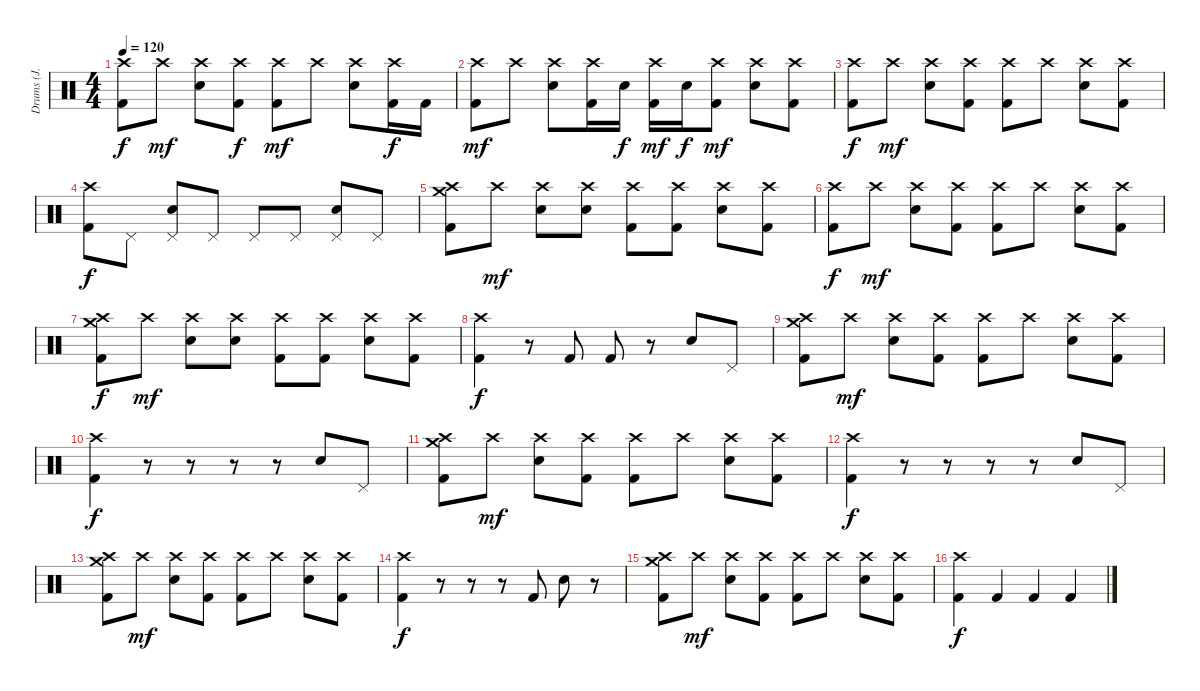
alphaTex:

\track ("Drums (J. Cramer)" "Drums (J. ") {instrument percussion}
\staff {score}
\articulation defaults
\ts (4 4)
\tempo 120
\clef neutral
\ks c
("Crash high (hit)" "Kick (hit) 2").8{dy f} "Crash high (hit)".8{dy mf} ("Crash high (hit)" "Electric Snare (hit)").8 ("Crash high (hit)" "Kick (hit) 2").8{dy f} ("Crash high (hit)" "Kick (hit) 2").8{dy mf} "Crash high (hit)".8 ("Crash high (hit)" "Electric Snare (hit)").8 ("Crash high (hit)" "Kick (hit) 2").16{dy f} "Kick (hit) 2".16 |
("Crash high (hit)" "Kick (hit) 2").8{dy mf} "Crash high (hit)".8 ("Crash high (hit)" "Electric Snare (hit)").8 ("Crash high (hit)" "Kick (hit) 2").16 "Electric Snare (hit)".16{dy f} ("Crash high (hit)" "Kick (hit) 2").16{dy mf} "Electric Snare (hit)".16{dy f} ("Crash high (hit)" "Kick (hit) 2").8{dy mf} ("Crash high (hit)" "Electric Snare (hit)").8 ("Crash high (hit)" "Kick (hit) 2").8 |
("Crash high (hit)" "Kick (hit) 2").8{dy f} "Crash high (hit)".8{dy mf} ("Crash high (hit)" "Electric Snare (hit)").8 ("Crash high (hit)" "Kick (hit) 2").8 ("Crash high (hit)" "Kick (hit) 2").8 "Crash high (hit)".8 ("Crash high (hit)" "Electric Snare (hit)").8 ("Crash high (hit)" "Kick (hit) 2").8 |
("Crash high (hit)" "Kick (hit) 2").8{dy f} "Pedal Hi-Hat (hit)".8 ("Pedal Hi-Hat (hit)" "Electric Snare (hit)").8 "Pedal Hi-Hat (hit)".8 "Pedal Hi-Hat (hit)".8 "Pedal Hi-Hat (hit)".8 ("Pedal Hi-Hat (hit)" "Electric Snare (hit)").8 "Pedal Hi-Hat (hit)".8 |
("Crash high (hit)" "Crash medium (hit)" "Kick (hit) 2").8 "Crash high (hit)".8{dy mf} ("Crash high (hit)" "Electric Snare (hit)").8 ("Crash high (hit)" "Electric Snare (hit)").8 ("Crash high (hit)" "Kick (hit) 2").8 ("Crash high (hit)" "Kick (hit) 2").8 ("Crash high (hit)" "Electric Snare (hit)").8 ("Crash high (hit)" "Kick (hit) 2").8 |
("Crash high (hit)" "Kick (hit) 2").8{dy f} "Crash high (hit)".8{dy mf} ("Crash high (hit)" "Electric Snare (hit)").8 ("Crash high (hit)" "Kick (hit) 2").8 ("Crash high (hit)" "Kick (hit) 2").8 "Crash high (hit)".8 ("Crash high (hit)" "Electric Snare (hit)").8 ("Crash high (hit)" "Kick (hit) 2").8 |
("Crash high (hit)" "Crash medium (hit)" "Kick (hit) 2").8{dy f} "Crash high (hit)".8{dy mf} ("Crash high (hit)" "Electric Snare (hit)").8 ("Crash high (hit)" "Electric Snare (hit)").8 ("Crash high (hit)" "Kick (hit) 2").8 ("Crash high (hit)" "Kick (hit) 2").8 ("Crash high (hit)" "Electric Snare (hit)").8 ("Crash high (hit)" "Kick (hit) 2").8 |
("Crash high (hit)" "Kick (hit) 2").4{dy f} r.8 "Kick (hit) 2".8 "Kick (hit) 2".8 r.8 "Electric Snare (hit)".8 "Pedal Hi-Hat (hit)".8 |
("Crash high (hit)" "Crash medium (hit)" "Kick (hit) 2").8 "Crash high (hit)".8{dy mf} ("Crash high (hit)" "Electric Snare (hit)").8 ("Crash high (hit)" "Kick (hit) 2").8 ("Crash high (hit)" "Kick (hit) 2").8 "Crash high (hit)".8 ("Crash high (hit)" "Electric Snare (hit)").8 ("Crash high (hit)" "Kick (hit) 2").8 |
("Crash high (hit)" "Kick (hit) 2").4{dy f} r.8 r.8 r.8 r.8 "Electric Snare (hit)".8 "Pedal Hi-Hat (hit)".8 |
("Crash high (hit)" "Crash medium (hit)" "Kick (hit) 2").8 "Crash high (hit)".8{dy mf} ("Crash high (hit)" "Electric Snare (hit)").8 ("Crash high (hit)" "Kick (hit) 2").8 ("Crash high (hit)" "Kick (hit) 2").8 "Crash high (hit)".8 ("Crash high (hit)" "Electric Snare (hit)").8 ("Crash high (hit)" "Kick (hit) 2").8 |
("Crash high (hit)" "Kick (hit) 2").4{dy f} r.8 r.8 r.8 r.8 "Electric Snare (hit)".8 "Pedal Hi-Hat (hit)".8 |
("Crash high (hit)" "Crash medium (hit)" "Kick (hit) 2").8 "Crash high (hit)".8{dy mf} ("Crash high (hit)" "Electric Snare (hit)").8 ("Crash high (hit)" "Kick (hit) 2").8 ("Crash high (hit)" "Kick (hit) 2").8 "Crash high (hit)".8 ("Crash high (hit)" "Electric Snare (hit)").8 ("Crash high (hit)" "Kick (hit) 2").8 |
("Crash high (hit)" "Kick (hit) 2").4{dy f} r.8 r.8 r.8 "Kick (hit) 2".8 "Electric Snare (hit)".8 r.8 |
("Crash high (hit)" "Crash medium (hit)" "Kick (hit) 2").8 "Crash high (hit)".8{dy mf} ("Crash high (hit)" "Electric Snare (hit)").8 ("Crash high (hit)" "Kick (hit) 2").8 ("Crash high (hit)" "Kick (hit) 2").8 "Crash high (hit)".8 ("Crash high (hit)" "Electric Snare (hit)").8 ("Crash high (hit)" "Kick (hit) 2").8 |
("Crash high (hit)" "Kick (hit) 2").4{dy f} "Kick (hit) 2".4 "Kick (hit) 2".4 "Kick (hit) 2".4
